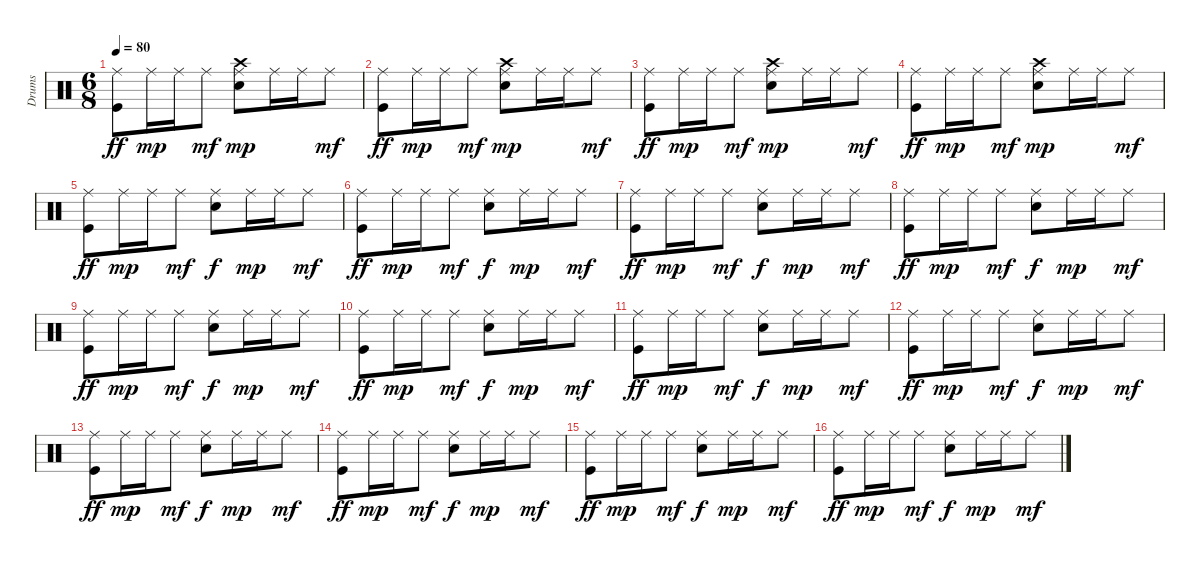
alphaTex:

\track ("Drums" "Drums") {instrument percussion}
\staff {score}
\articulation defaults
\ts (6 8)
\tempo 80
\clef neutral
\ks c
("Kick (hit)" "Ride (middle)").8{dy ff} "Ride (middle)".16{dy mp} "Ride (middle)".16 "Ride (middle)".8{dy mf} ("Ride (middle)" "Snare (hit) 2" "Crash high (hit)").8{dy mp} "Ride (middle)".16 "Ride (middle)".16 "Ride (middle)".8{dy mf} |
("Kick (hit)" "Ride (middle)").8{dy ff} "Ride (middle)".16{dy mp} "Ride (middle)".16 "Ride (middle)".8{dy mf} ("Ride (middle)" "Snare (hit) 2" "Crash high (hit)").8{dy mp} "Ride (middle)".16 "Ride (middle)".16 "Ride (middle)".8{dy mf} |
("Kick (hit)" "Ride (middle)").8{dy ff} "Ride (middle)".16{dy mp} "Ride (middle)".16 "Ride (middle)".8{dy mf} ("Ride (middle)" "Snare (hit) 2" "Crash high (hit)").8{dy mp} "Ride (middle)".16 "Ride (middle)".16 "Ride (middle)".8{dy mf} |
("Kick (hit)" "Ride (middle)").8{dy ff} "Ride (middle)".16{dy mp} "Ride (middle)".16 "Ride (middle)".8{dy mf} ("Ride (middle)" "Snare (hit) 2" "Crash high (hit)").8{dy mp} "Ride (middle)".16 "Ride (middle)".16 "Ride (middle)".8{dy mf} |
("Kick (hit)" "Ride (middle)").8{dy ff} "Ride (middle)".16{dy mp} "Ride (middle)".16 "Ride (middle)".8{dy mf} ("Ride (middle)" "Snare (hit) 2").8{dy f} "Ride (middle)".16{dy mp} "Ride (middle)".16 "Ride (middle)".8{dy mf} |
("Kick (hit)" "Ride (middle)").8{dy ff} "Ride (middle)".16{dy mp} "Ride (middle)".16 "Ride (middle)".8{dy mf} ("Ride (middle)" "Snare (hit) 2").8{dy f} "Ride (middle)".16{dy mp} "Ride (middle)".16 "Ride (middle)".8{dy mf} |
("Kick (hit)" "Ride (middle)").8{dy ff} "Ride (middle)".16{dy mp} "Ride (middle)".16 "Ride (middle)".8{dy mf} ("Ride (middle)" "Snare (hit) 2").8{dy f} "Ride (middle)".16{dy mp} "Ride (middle)".16 "Ride (middle)".8{dy mf} |
("Kick (hit)" "Ride (middle)").8{dy ff} "Ride (middle)".16{dy mp} "Ride (middle)".16 "Ride (middle)".8{dy mf} ("Ride (middle)" "Snare (hit) 2").8{dy f} "Ride (middle)".16{dy mp} "Ride (middle)".16 "Ride (middle)".8{dy mf} |
("Kick (hit)" "Ride (middle)").8{dy ff} "Ride (middle)".16{dy mp} "Ride (middle)".16 "Ride (middle)".8{dy mf} ("Ride (middle)" "Snare (hit) 2").8{dy f} "Ride (middle)".16{dy mp} "Ride (middle)".16 "Ride (middle)".8{dy mf} |
("Kick (hit)" "Ride (middle)").8{dy ff} "Ride (middle)".16{dy mp} "Ride (middle)".16 "Ride (middle)".8{dy mf} ("Ride (middle)" "Snare (hit) 2").8{dy f} "Ride (middle)".16{dy mp} "Ride (middle)".16 "Ride (middle)".8{dy mf} |
("Kick (hit)" "Ride (middle)").8{dy ff} "Ride (middle)".16{dy mp} "Ride (middle)".16 "Ride (middle)".8{dy mf} ("Ride (middle)" "Snare (hit) 2").8{dy f} "Ride (middle)".16{dy mp} "Ride (middle)".16 "Ride (middle)".8{dy mf} |
("Kick (hit)" "Ride (middle)").8{dy ff} "Ride (middle)".16{dy mp} "Ride (middle)".16 "Ride (middle)".8{dy mf} ("Ride (middle)" "Snare (hit) 2").8{dy f} "Ride (middle)".16{dy mp} "Ride (middle)".16 "Ride (middle)".8{dy mf} |
("Kick (hit)" "Ride (middle)").8{dy ff} "Ride (middle)".16{dy mp} "Ride (middle)".16 "Ride (middle)".8{dy mf} ("Ride (middle)" "Snare (hit) 2").8{dy f} "Ride (middle)".16{dy mp} "Ride (middle)".16 "Ride (middle)".8{dy mf} |
("Kick (hit)" "Ride (middle)").8{dy ff} "Ride (middle)".16{dy mp} "Ride (middle)".16 "Ride (middle)".8{dy mf} ("Ride (middle)" "Snare (hit) 2").8{dy f} "Ride (middle)".16{dy mp} "Ride (middle)".16 "Ride (middle)".8{dy mf} |
("Kick (hit)" "Ride (middle)").8{dy ff} "Ride (middle)".16{dy mp} "Ride (middle)".16 "Ride (middle)".8{dy mf} ("Ride (middle)" "Snare (hit) 2").8{dy f} "Ride (middle)".16{dy mp} "Ride (middle)".16 "Ride (middle)".8{dy mf} |
("Kick (hit)" "Ride (middle)").8{dy ff} "Ride (middle)".16{dy mp} "Ride (middle)".16 "Ride (middle)".8{dy mf} ("Ride (middle)" "Snare (hit) 2").8{dy f} "Ride (middle)".16{dy mp} "Ride (middle)".16 "Ride (middle)".8{dy mf}
